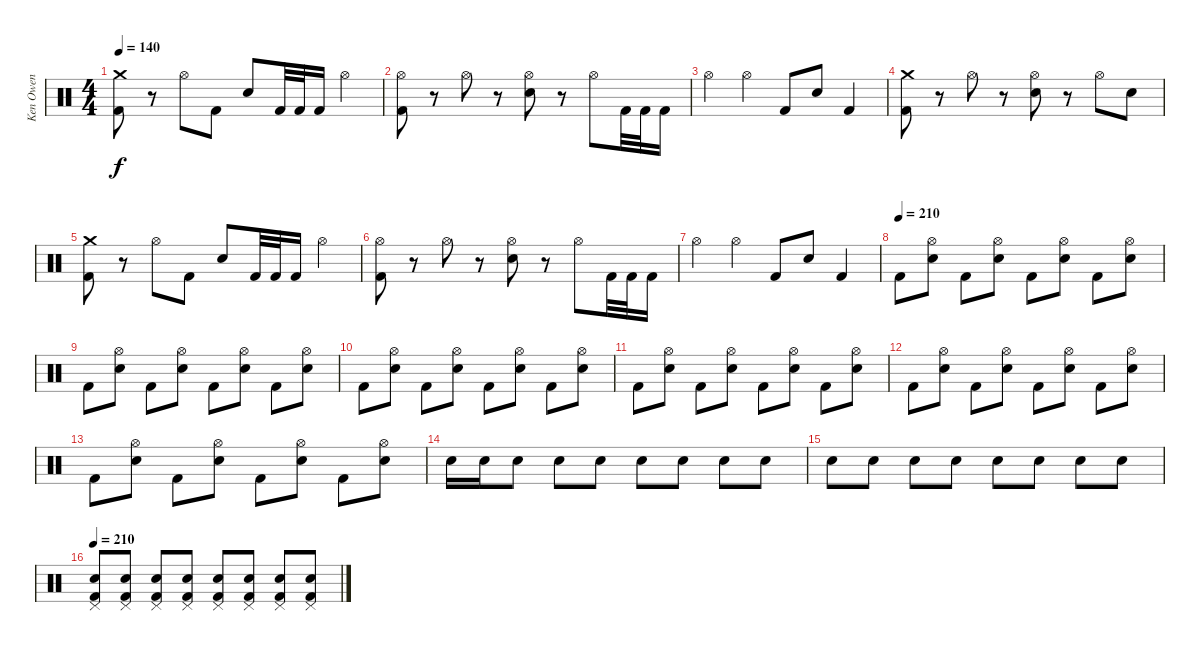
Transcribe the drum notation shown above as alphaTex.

\track ("Ken Owen" "Ken Owen") {instrument percussion}
\staff {score}
\articulation defaults
\ts (4 4)
\tempo 140
\clef neutral
\ks c
("Crash medium (hit)" "Kick (hit) 2").8{dy f} r.8 "Hi-Hat (open)".8 "Kick (hit) 2".8 "Electric Snare (hit)".8 "Kick (hit) 2".32 "Kick (hit) 2".32 "Kick (hit) 2".16 "Hi-Hat (open)".4 |
("Hi-Hat (open)" "Kick (hit) 2").8 r.8 "Hi-Hat (open)".8 r.8 ("Hi-Hat (open)" "Electric Snare (hit)").8 r.8 "Hi-Hat (open)".8 "Kick (hit) 2".32 "Kick (hit) 2".32 "Kick (hit) 2".16 |
"Hi-Hat (open)".4 "Hi-Hat (open)".4 "Kick (hit) 2".8 "Electric Snare (hit)".8 "Kick (hit) 2".4 |
("Crash medium (hit)" "Kick (hit) 2").8 r.8 "Hi-Hat (open)".8 r.8 ("Hi-Hat (open)" "Electric Snare (hit)").8 r.8 "Hi-Hat (open)".8 "Electric Snare (hit)".8 |
("Crash medium (hit)" "Kick (hit) 2").8 r.8 "Hi-Hat (open)".8 "Kick (hit) 2".8 "Electric Snare (hit)".8 "Kick (hit) 2".32 "Kick (hit) 2".32 "Kick (hit) 2".16 "Hi-Hat (open)".4 |
("Hi-Hat (open)" "Kick (hit) 2").8 r.8 "Hi-Hat (open)".8 r.8 ("Hi-Hat (open)" "Electric Snare (hit)").8 r.8 "Hi-Hat (open)".8 "Kick (hit) 2".32 "Kick (hit) 2".32 "Kick (hit) 2".16 |
"Hi-Hat (open)".4 "Hi-Hat (open)".4 "Kick (hit) 2".8 "Electric Snare (hit)".8 "Kick (hit) 2".4 |
\tempo (210)
"Kick (hit) 2".8 ("Hi-Hat (open)" "Electric Snare (hit)").8 "Kick (hit) 2".8 ("Hi-Hat (open)" "Electric Snare (hit)").8 "Kick (hit) 2".8 ("Hi-Hat (open)" "Electric Snare (hit)").8 "Kick (hit) 2".8 ("Hi-Hat (open)" "Electric Snare (hit)").8 |
"Kick (hit) 2".8 ("Hi-Hat (open)" "Electric Snare (hit)").8 "Kick (hit) 2".8 ("Hi-Hat (open)" "Electric Snare (hit)").8 "Kick (hit) 2".8 ("Hi-Hat (open)" "Electric Snare (hit)").8 "Kick (hit) 2".8 ("Hi-Hat (open)" "Electric Snare (hit)").8 |
"Kick (hit) 2".8 ("Hi-Hat (open)" "Electric Snare (hit)").8 "Kick (hit) 2".8 ("Hi-Hat (open)" "Electric Snare (hit)").8 "Kick (hit) 2".8 ("Hi-Hat (open)" "Electric Snare (hit)").8 "Kick (hit) 2".8 ("Hi-Hat (open)" "Electric Snare (hit)").8 |
"Kick (hit) 2".8 ("Hi-Hat (open)" "Electric Snare (hit)").8 "Kick (hit) 2".8 ("Hi-Hat (open)" "Electric Snare (hit)").8 "Kick (hit) 2".8 ("Hi-Hat (open)" "Electric Snare (hit)").8 "Kick (hit) 2".8 ("Hi-Hat (open)" "Electric Snare (hit)").8 |
"Kick (hit) 2".8 ("Hi-Hat (open)" "Electric Snare (hit)").8 "Kick (hit) 2".8 ("Hi-Hat (open)" "Electric Snare (hit)").8 "Kick (hit) 2".8 ("Hi-Hat (open)" "Electric Snare (hit)").8 "Kick (hit) 2".8 ("Hi-Hat (open)" "Electric Snare (hit)").8 |
"Kick (hit) 2".8 ("Hi-Hat (open)" "Electric Snare (hit)").8 "Kick (hit) 2".8 ("Hi-Hat (open)" "Electric Snare (hit)").8 "Kick (hit) 2".8 ("Hi-Hat (open)" "Electric Snare (hit)").8 "Kick (hit) 2".8 ("Hi-Hat (open)" "Electric Snare (hit)").8 |
"Electric Snare (hit)".16 "Electric Snare (hit)".16 "Electric Snare (hit)".8 "Electric Snare (hit)".8 "Electric Snare (hit)".8 "Electric Snare (hit)".8 "Electric Snare (hit)".8 "Electric Snare (hit)".8 "Electric Snare (hit)".8 |
"Electric Snare (hit)".8 "Electric Snare (hit)".8 "Electric Snare (hit)".8 "Electric Snare (hit)".8 "Electric Snare (hit)".8 "Electric Snare (hit)".8 "Electric Snare (hit)".8 "Electric Snare (hit)".8 |
\tempo 210
("Pedal Hi-Hat (hit)" "Electric Snare (hit)" "Kick (hit) 2").8 ("Pedal Hi-Hat (hit)" "Electric Snare (hit)" "Kick (hit) 2").8 ("Pedal Hi-Hat (hit)" "Electric Snare (hit)" "Kick (hit) 2").8 ("Pedal Hi-Hat (hit)" "Electric Snare (hit)" "Kick (hit) 2").8 ("Pedal Hi-Hat (hit)" "Electric Snare (hit)" "Kick (hit) 2").8 ("Pedal Hi-Hat (hit)" "Electric Snare (hit)" "Kick (hit) 2").8 ("Pedal Hi-Hat (hit)" "Electric Snare (hit)" "Kick (hit) 2").8 ("Pedal Hi-Hat (hit)" "Electric Snare (hit)" "Kick (hit) 2").8
